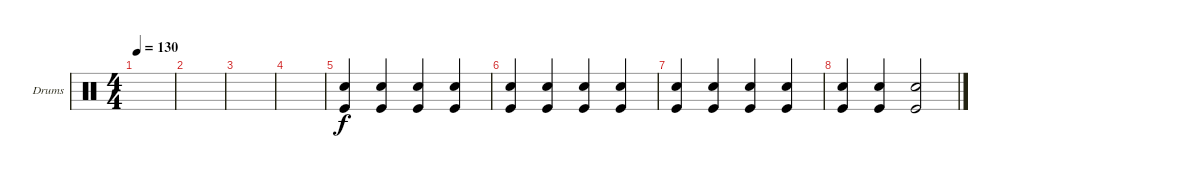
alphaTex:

\defaultSystemsLayout 4
\bracketExtendMode groupsimilarinstruments
\firstSystemTrackNameOrientation horizontal
\otherSystemsTrackNameOrientation horizontal
\track ("Drumkit" "Drums") {instrument percussion}
\staff {score}
\articulation defaults
\ts (4 4)
\tempo 130
\clef neutral
\scale
0.472222
\ks c
|
\scale
0.263889 |
\scale
0.263889 |
\scale
0.311475 |
\scale
0.377049 ("Snare (hit) 2" "Kick (hit)").4 ("Snare (hit) 2" "Kick (hit)").4 ("Snare (hit) 2" "Kick (hit)").4 ("Snare (hit) 2" "Kick (hit)").4 |
\scale
0.311475 ("Snare (hit) 2" "Kick (hit)").4 ("Snare (hit) 2" "Kick (hit)").4 ("Snare (hit) 2" "Kick (hit)").4 ("Snare (hit) 2" "Kick (hit)").4 |
("Snare (hit) 2" "Kick (hit)").4 ("Snare (hit) 2" "Kick (hit)").4 ("Snare (hit) 2" "Kick (hit)").4 ("Snare (hit) 2" "Kick (hit)").4 |
("Snare (hit) 2" "Kick (hit)").4 ("Snare (hit) 2" "Kick (hit)").4 ("Snare (hit) 2" "Kick (hit)").2
